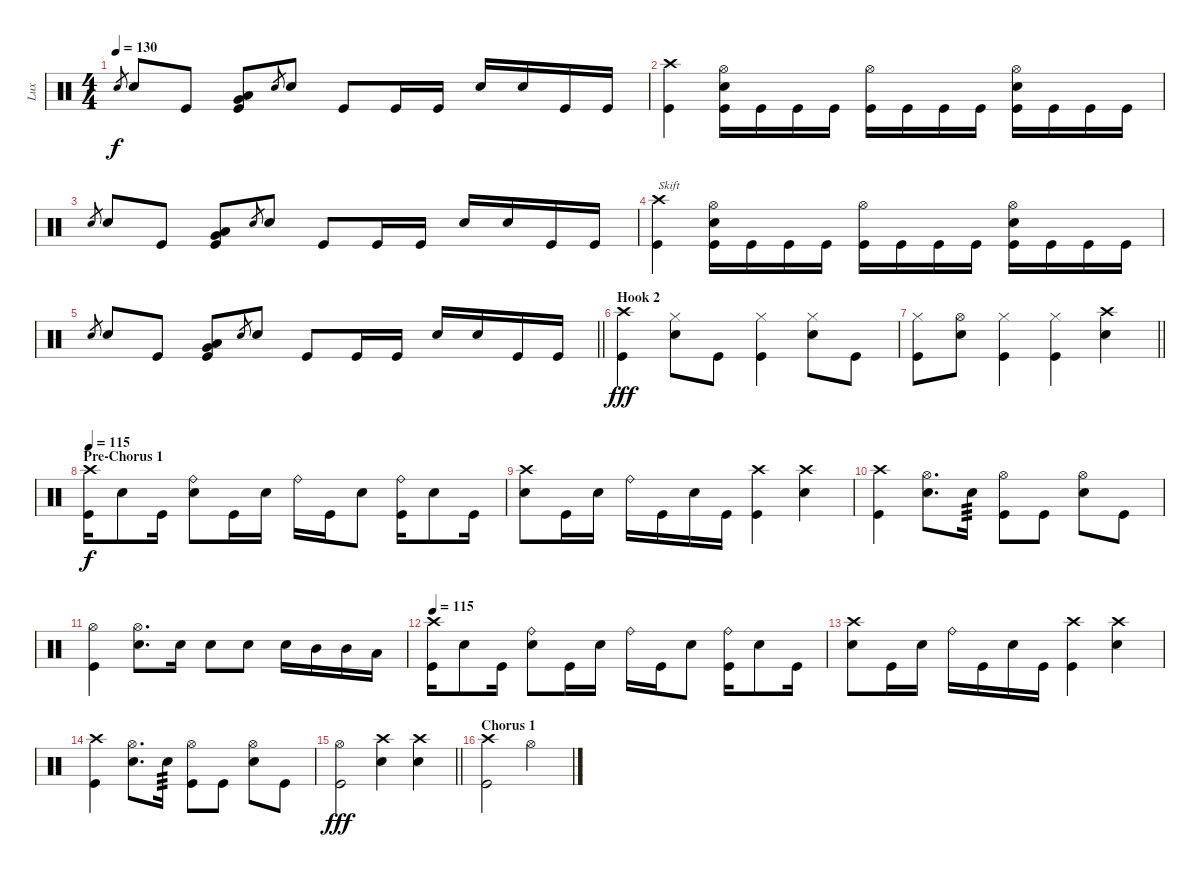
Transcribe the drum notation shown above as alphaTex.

\track ("Lux" "Lux") {instrument percussion}
\staff {score}
\articulation defaults
\ts (4 4)
\tempo 130
\clef neutral
\ks c "Snare (hit) 2".8{gr dy f} "Snare (hit) 2".8 "Kick (hit)".8
("Very Low Tom (hit)" "Low Tom (hit)" "Kick (hit)").8 "Snare (hit) 2".8{gr} "Snare (hit) 2".8 "Kick (hit)".8 "Kick (hit)".16 "Kick (hit)".16 "Snare (hit) 2".16 "Snare (hit) 2".16 "Kick (hit)".16 "Kick (hit)".16 |
("Crash high (hit)" "Kick (hit)").4 ("Hi-Hat (open)" "Snare (hit) 2" "Kick (hit)").16 "Kick (hit)".16 "Kick (hit)".16 "Kick (hit)".16 ("Hi-Hat (open)" "Kick (hit)").16 "Kick (hit)".16 "Kick (hit)".16 "Kick (hit)".16 ("Hi-Hat (open)" "Snare (hit) 2" "Kick (hit)").16 "Kick (hit)".16 "Kick (hit)".16 "Kick (hit)".16 |
"Snare (hit) 2".8{gr} "Snare (hit) 2".8 "Kick (hit)".8 ("Very Low Tom (hit)" "Low Tom (hit)" "Kick (hit)").8 "Snare (hit) 2".8{gr} "Snare (hit) 2".8 "Kick (hit)".8 "Kick (hit)".16 "Kick (hit)".16 "Snare (hit) 2".16 "Snare (hit) 2".16 "Kick (hit)".16 "Kick (hit)".16 |
("Crash high (hit)" "Kick (hit)").4{txt "Skift"} ("Hi-Hat (open)" "Snare (hit) 2" "Kick (hit)").16 "Kick (hit)".16 "Kick (hit)".16 "Kick (hit)".16 ("Hi-Hat (open)" "Kick (hit)").16 "Kick (hit)".16 "Kick (hit)".16 "Kick (hit)".16 ("Hi-Hat (open)" "Snare (hit) 2" "Kick (hit)").16 "Kick (hit)".16 "Kick (hit)".16 "Kick (hit)".16 |
\barLineRight lightlight "Snare (hit) 2".8{gr} "Snare (hit) 2".8 "Kick (hit)".8
("Very Low Tom (hit)" "Low Tom (hit)" "Kick (hit)").8 "Snare (hit) 2".8{gr} "Snare (hit) 2".8 "Kick (hit)".8 "Kick (hit)".16 "Kick (hit)".16 "Snare (hit) 2".16 "Snare (hit) 2".16 "Kick (hit)".16 "Kick (hit)".16 |
\section ("" "Hook 2")
("Crash high (hit)" "Kick (hit)").4{dy fff} ("Hi-Hat (closed)" "Snare (hit) 2").8 "Kick (hit)".8 ("Hi-Hat (closed)" "Kick (hit)").4 ("Hi-Hat (closed)" "Snare (hit) 2").8 "Kick (hit)".8 |
\barLineRight lightlight
("Hi-Hat (closed)" "Kick (hit)").8 ("Hi-Hat (open)" "Snare (hit) 2").8 ("Hi-Hat (closed)" "Kick (hit)").4 ("Hi-Hat (closed)" "Kick (hit)").4 ("Crash high (hit)" "Snare (hit) 2").4 |
\section ("" "Pre-Chorus 1")
\tempo 115
("Crash high (hit)" "Kick (hit)").16{dy f} "Snare (hit) 2".8 "Kick (hit)".16 ("Ride (bell)" "Snare (hit) 2").8 "Kick (hit)".16 "Snare (hit) 2".16 "Ride (bell)".16 "Kick (hit)".16 "Snare (hit) 2".8 ("Ride (bell)" "Kick (hit)").16 "Snare (hit) 2".8 "Kick (hit)".16 |
("Crash high (hit)" "Snare (hit) 2").8 "Kick (hit)".16 "Snare (hit) 2".16 "Ride (bell)".16 "Kick (hit)".16 "Snare (hit) 2".16 "Kick (hit)".16 ("Crash high (hit)" "Kick (hit)").4 ("Crash high (hit)" "Snare (hit) 2").4 |
("Crash high (hit)" "Kick (hit)").4 ("Hi-Hat (open)" "Snare (hit) 2").8{d} "Snare (hit) 2".16{tp 3} ("Hi-Hat (open)" "Kick (hit)").8 "Kick (hit)".8 ("Hi-Hat (open)" "Snare (hit) 2").8 "Kick (hit)".8 |
("Hi-Hat (open)" "Kick (hit)").4 ("Hi-Hat (open)" "Snare (hit) 2").8{d} "Snare (hit) 2".16 "Snare (hit) 2".8 "Snare (hit) 2".8 "Snare (hit) 2".16 "Mid Tom (hit)".16 "Mid Tom (hit)".16 "Low Tom (hit)".16 |
\tempo 115
("Crash high (hit)" "Kick (hit)").16 "Snare (hit) 2".8 "Kick (hit)".16 ("Ride (bell)" "Snare (hit) 2").8 "Kick (hit)".16 "Snare (hit) 2".16 "Ride (bell)".16 "Kick (hit)".16 "Snare (hit) 2".8 ("Ride (bell)" "Kick (hit)").16 "Snare (hit) 2".8 "Kick (hit)".16 |
("Crash high (hit)" "Snare (hit) 2").8 "Kick (hit)".16 "Snare (hit) 2".16 "Ride (bell)".16 "Kick (hit)".16 "Snare (hit) 2".16 "Kick (hit)".16 ("Crash high (hit)" "Kick (hit)").4 ("Crash high (hit)" "Snare (hit) 2").4 |
("Crash high (hit)" "Kick (hit)").4 ("Hi-Hat (open)" "Snare (hit) 2").8{d} "Snare (hit) 2".16{tp 3} ("Hi-Hat (open)" "Kick (hit)").8 "Kick (hit)".8 ("Hi-Hat (open)" "Snare (hit) 2").8 "Kick (hit)".8 |
\barLineRight lightlight
("Hi-Hat (open)" "Kick (hit)").2{dy fff} ("Crash high (hit)" "Snare (hit) 2").4 ("Crash high (hit)" "Snare (hit) 2").4 |
\section ("" "Chorus 1")
("Crash high (hit)" "Kick (hit)").2 "Hi-Hat (open)".2
